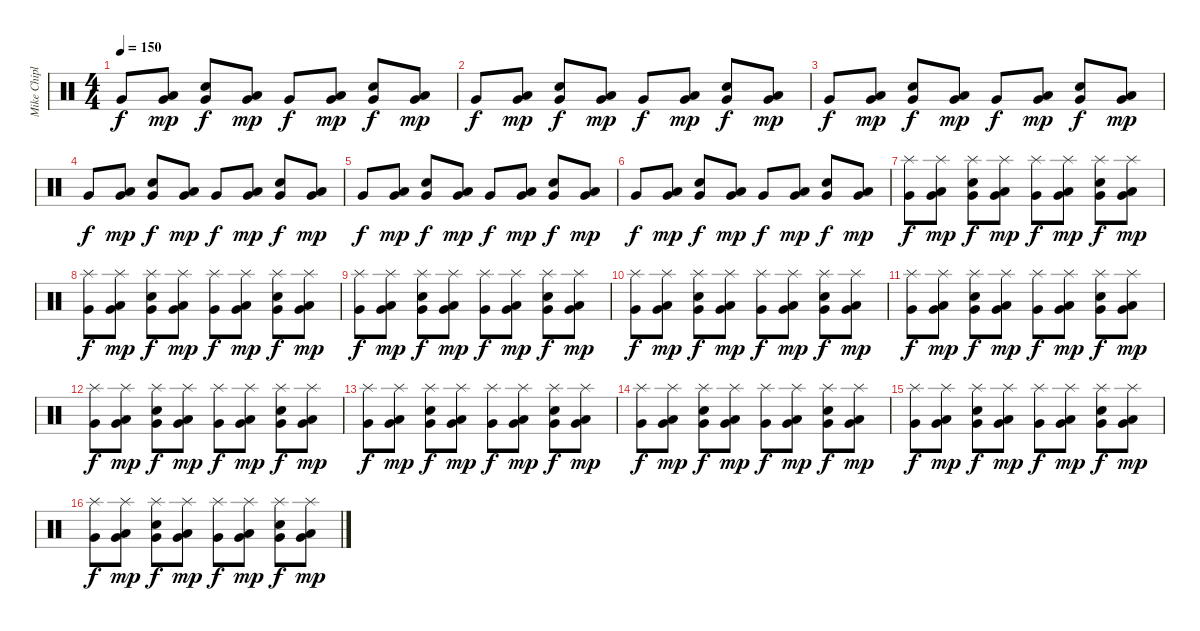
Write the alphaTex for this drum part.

\track ("Mike Chiplin" "Mike Chipl") {instrument percussion}
\staff {score}
\articulation defaults
\ts (4 4)
\tempo 150
\clef neutral
\ks c "Very Low Tom (hit)".8{dy f}
("Low Floor Tom (hit)" "Very Low Tom (hit)").8{dy mp} ("Very Low Tom (hit)" "Snare (hit) 2").8{dy f} ("Low Floor Tom (hit)" "Very Low Tom (hit)").8{dy mp} "Very Low Tom (hit)".8{dy f} ("Low Floor Tom (hit)" "Very Low Tom (hit)").8{dy mp} ("Very Low Tom (hit)" "Snare (hit) 2").8{dy f} ("Low Floor Tom (hit)" "Very Low Tom (hit)").8{dy mp} |
"Very Low Tom (hit)".8{dy f} ("Low Floor Tom (hit)" "Very Low Tom (hit)").8{dy mp} ("Very Low Tom (hit)" "Snare (hit) 2").8{dy f} ("Low Floor Tom (hit)" "Very Low Tom (hit)").8{dy mp} "Very Low Tom (hit)".8{dy f} ("Low Floor Tom (hit)" "Very Low Tom (hit)").8{dy mp} ("Very Low Tom (hit)" "Snare (hit) 2").8{dy f} ("Low Floor Tom (hit)" "Very Low Tom (hit)").8{dy mp} |
"Very Low Tom (hit)".8{dy f} ("Low Floor Tom (hit)" "Very Low Tom (hit)").8{dy mp} ("Very Low Tom (hit)" "Snare (hit) 2").8{dy f} ("Low Floor Tom (hit)" "Very Low Tom (hit)").8{dy mp} "Very Low Tom (hit)".8{dy f} ("Low Floor Tom (hit)" "Very Low Tom (hit)").8{dy mp} ("Very Low Tom (hit)" "Snare (hit) 2").8{dy f} ("Low Floor Tom (hit)" "Very Low Tom (hit)").8{dy mp} |
"Very Low Tom (hit)".8{dy f} ("Low Floor Tom (hit)" "Very Low Tom (hit)").8{dy mp} ("Very Low Tom (hit)" "Snare (hit) 2").8{dy f} ("Low Floor Tom (hit)" "Very Low Tom (hit)").8{dy mp} "Very Low Tom (hit)".8{dy f} ("Low Floor Tom (hit)" "Very Low Tom (hit)").8{dy mp} ("Very Low Tom (hit)" "Snare (hit) 2").8{dy f} ("Low Floor Tom (hit)" "Very Low Tom (hit)").8{dy mp} |
"Very Low Tom (hit)".8{dy f} ("Low Floor Tom (hit)" "Very Low Tom (hit)").8{dy mp} ("Very Low Tom (hit)" "Snare (hit) 2").8{dy f} ("Low Floor Tom (hit)" "Very Low Tom (hit)").8{dy mp} "Very Low Tom (hit)".8{dy f} ("Low Floor Tom (hit)" "Very Low Tom (hit)").8{dy mp} ("Very Low Tom (hit)" "Snare (hit) 2").8{dy f} ("Low Floor Tom (hit)" "Very Low Tom (hit)").8{dy mp} |
"Very Low Tom (hit)".8{dy f} ("Low Floor Tom (hit)" "Very Low Tom (hit)").8{dy mp} ("Very Low Tom (hit)" "Snare (hit) 2").8{dy f} ("Low Floor Tom (hit)" "Very Low Tom (hit)").8{dy mp} "Very Low Tom (hit)".8{dy f} ("Low Floor Tom (hit)" "Very Low Tom (hit)").8{dy mp} ("Very Low Tom (hit)" "Snare (hit) 2").8{dy f} ("Low Floor Tom (hit)" "Very Low Tom (hit)").8{dy mp} |
("Very Low Tom (hit)" "Splash (hit)").8{dy f} ("Low Floor Tom (hit)" "Very Low Tom (hit)" "Splash (hit)").8{dy mp} ("Very Low Tom (hit)" "Snare (hit) 2" "Splash (hit)").8{dy f} ("Low Floor Tom (hit)" "Very Low Tom (hit)" "Splash (hit)").8{dy mp} ("Very Low Tom (hit)" "Splash (hit)").8{dy f} ("Low Floor Tom (hit)" "Very Low Tom (hit)" "Splash (hit)").8{dy mp} ("Very Low Tom (hit)" "Snare (hit) 2" "Splash (hit)").8{dy f} ("Low Floor Tom (hit)" "Very Low Tom (hit)" "Splash (hit)").8{dy mp} |
("Very Low Tom (hit)" "Splash (hit)").8{dy f} ("Low Floor Tom (hit)" "Very Low Tom (hit)" "Splash (hit)").8{dy mp} ("Very Low Tom (hit)" "Snare (hit) 2" "Splash (hit)").8{dy f} ("Low Floor Tom (hit)" "Very Low Tom (hit)" "Splash (hit)").8{dy mp} ("Very Low Tom (hit)" "Splash (hit)").8{dy f} ("Low Floor Tom (hit)" "Very Low Tom (hit)" "Splash (hit)").8{dy mp} ("Very Low Tom (hit)" "Snare (hit) 2" "Splash (hit)").8{dy f} ("Low Floor Tom (hit)" "Very Low Tom (hit)" "Splash (hit)").8{dy mp} |
("Very Low Tom (hit)" "Splash (hit)").8{dy f} ("Low Floor Tom (hit)" "Very Low Tom (hit)" "Splash (hit)").8{dy mp} ("Very Low Tom (hit)" "Snare (hit) 2" "Splash (hit)").8{dy f} ("Low Floor Tom (hit)" "Very Low Tom (hit)" "Splash (hit)").8{dy mp} ("Very Low Tom (hit)" "Splash (hit)").8{dy f} ("Low Floor Tom (hit)" "Very Low Tom (hit)" "Splash (hit)").8{dy mp} ("Very Low Tom (hit)" "Snare (hit) 2" "Splash (hit)").8{dy f} ("Low Floor Tom (hit)" "Very Low Tom (hit)" "Splash (hit)").8{dy mp} |
("Very Low Tom (hit)" "Splash (hit)").8{dy f} ("Low Floor Tom (hit)" "Very Low Tom (hit)" "Splash (hit)").8{dy mp} ("Very Low Tom (hit)" "Snare (hit) 2" "Splash (hit)").8{dy f} ("Low Floor Tom (hit)" "Very Low Tom (hit)" "Splash (hit)").8{dy mp} ("Very Low Tom (hit)" "Splash (hit)").8{dy f} ("Low Floor Tom (hit)" "Very Low Tom (hit)" "Splash (hit)").8{dy mp} ("Very Low Tom (hit)" "Snare (hit) 2" "Splash (hit)").8{dy f} ("Low Floor Tom (hit)" "Very Low Tom (hit)" "Splash (hit)").8{dy mp} |
("Very Low Tom (hit)" "Splash (hit)").8{dy f} ("Low Floor Tom (hit)" "Very Low Tom (hit)" "Splash (hit)").8{dy mp} ("Very Low Tom (hit)" "Snare (hit) 2" "Splash (hit)").8{dy f} ("Low Floor Tom (hit)" "Very Low Tom (hit)" "Splash (hit)").8{dy mp} ("Very Low Tom (hit)" "Splash (hit)").8{dy f} ("Low Floor Tom (hit)" "Very Low Tom (hit)" "Splash (hit)").8{dy mp} ("Very Low Tom (hit)" "Snare (hit) 2" "Splash (hit)").8{dy f} ("Low Floor Tom (hit)" "Very Low Tom (hit)" "Splash (hit)").8{dy mp} |
("Very Low Tom (hit)" "Splash (hit)").8{dy f} ("Low Floor Tom (hit)" "Very Low Tom (hit)" "Splash (hit)").8{dy mp} ("Very Low Tom (hit)" "Snare (hit) 2" "Splash (hit)").8{dy f} ("Low Floor Tom (hit)" "Very Low Tom (hit)" "Splash (hit)").8{dy mp} ("Very Low Tom (hit)" "Splash (hit)").8{dy f} ("Low Floor Tom (hit)" "Very Low Tom (hit)" "Splash (hit)").8{dy mp} ("Very Low Tom (hit)" "Snare (hit) 2" "Splash (hit)").8{dy f} ("Low Floor Tom (hit)" "Very Low Tom (hit)" "Splash (hit)").8{dy mp} |
("Very Low Tom (hit)" "Splash (hit)").8{dy f} ("Low Floor Tom (hit)" "Very Low Tom (hit)" "Splash (hit)").8{dy mp} ("Very Low Tom (hit)" "Snare (hit) 2" "Splash (hit)").8{dy f} ("Low Floor Tom (hit)" "Very Low Tom (hit)" "Splash (hit)").8{dy mp} ("Very Low Tom (hit)" "Splash (hit)").8{dy f} ("Low Floor Tom (hit)" "Very Low Tom (hit)" "Splash (hit)").8{dy mp} ("Very Low Tom (hit)" "Snare (hit) 2" "Splash (hit)").8{dy f} ("Low Floor Tom (hit)" "Very Low Tom (hit)" "Splash (hit)").8{dy mp} |
("Very Low Tom (hit)" "Splash (hit)").8{dy f} ("Low Floor Tom (hit)" "Very Low Tom (hit)" "Splash (hit)").8{dy mp} ("Very Low Tom (hit)" "Snare (hit) 2" "Splash (hit)").8{dy f} ("Low Floor Tom (hit)" "Very Low Tom (hit)" "Splash (hit)").8{dy mp} ("Very Low Tom (hit)" "Splash (hit)").8{dy f} ("Low Floor Tom (hit)" "Very Low Tom (hit)" "Splash (hit)").8{dy mp} ("Very Low Tom (hit)" "Snare (hit) 2" "Splash (hit)").8{dy f} ("Low Floor Tom (hit)" "Very Low Tom (hit)" "Splash (hit)").8{dy mp} |
("Very Low Tom (hit)" "Splash (hit)").8{dy f} ("Low Floor Tom (hit)" "Very Low Tom (hit)" "Splash (hit)").8{dy mp} ("Very Low Tom (hit)" "Snare (hit) 2" "Splash (hit)").8{dy f} ("Low Floor Tom (hit)" "Very Low Tom (hit)" "Splash (hit)").8{dy mp} ("Very Low Tom (hit)" "Splash (hit)").8{dy f} ("Low Floor Tom (hit)" "Very Low Tom (hit)" "Splash (hit)").8{dy mp} ("Very Low Tom (hit)" "Snare (hit) 2" "Splash (hit)").8{dy f} ("Low Floor Tom (hit)" "Very Low Tom (hit)" "Splash (hit)").8{dy mp} |
("Very Low Tom (hit)" "Splash (hit)").8{dy f} ("Low Floor Tom (hit)" "Very Low Tom (hit)" "Splash (hit)").8{dy mp} ("Very Low Tom (hit)" "Snare (hit) 2" "Splash (hit)").8{dy f} ("Low Floor Tom (hit)" "Very Low Tom (hit)" "Splash (hit)").8{dy mp} ("Very Low Tom (hit)" "Splash (hit)").8{dy f} ("Low Floor Tom (hit)" "Very Low Tom (hit)" "Splash (hit)").8{dy mp} ("Very Low Tom (hit)" "Snare (hit) 2" "Splash (hit)").8{dy f} ("Low Floor Tom (hit)" "Very Low Tom (hit)" "Splash (hit)").8{dy mp}
